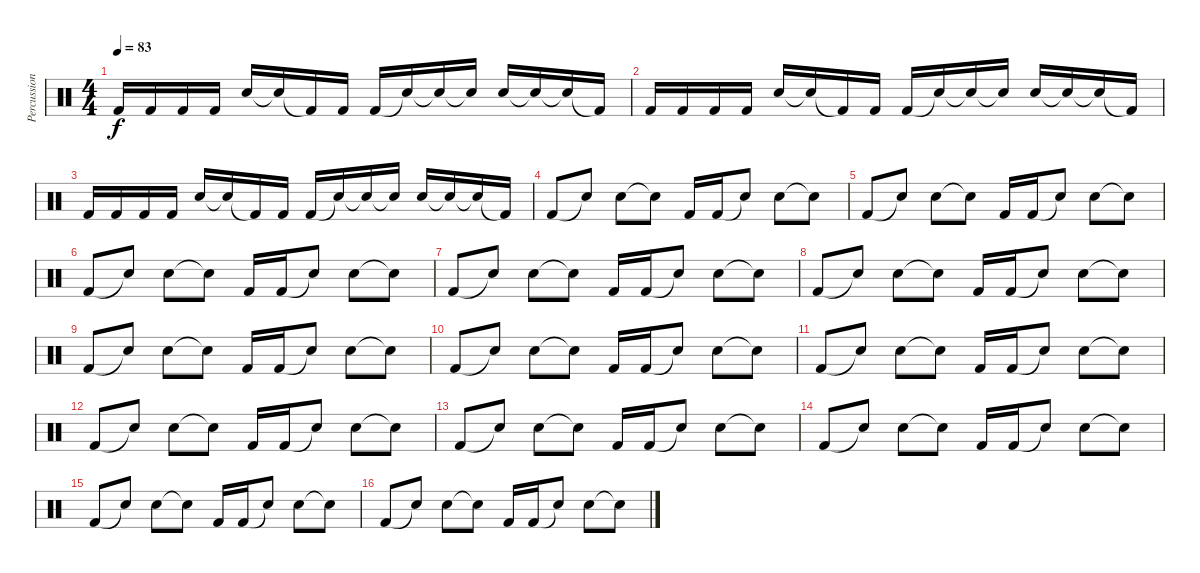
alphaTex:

\track ("Percussion" "Percussion") {instrument percussion}
\staff {score}
\articulation defaults
\ts (4 4)
\tempo 83
\clef neutral
\ks c "Kick (hit) 2".16{dy f} "Kick (hit) 2".16 "Kick (hit) 2".16 "Kick (hit) 2".16 "Snare (hit) 2".16 "Snare (hit)"{t}.16 "Kick (hit) 2"{t}.16 "Kick (hit) 2".16 "Kick (hit) 2".16 "Snare (hit)"{t}.16 "Snare (hit)"{t}.16 "Snare (hit)"{t}.16 "Snare (hit) 2".16 "Snare (hit)"{t}.16 "Snare (hit)"{t}.16 "Kick (hit) 2"{t}.16
|
"Kick (hit) 2".16 "Kick (hit) 2".16 "Kick (hit) 2".16 "Kick (hit) 2".16 "Snare (hit) 2".16 "Snare (hit)"{t}.16 "Kick (hit) 2"{t}.16 "Kick (hit) 2".16 "Kick (hit) 2".16 "Snare (hit)"{t}.16 "Snare (hit)"{t}.16 "Snare (hit)"{t}.16 "Snare (hit) 2".16 "Snare (hit)"{t}.16 "Snare (hit)"{t}.16 "Kick (hit) 2"{t}.16 |
"Kick (hit) 2".16 "Kick (hit) 2".16 "Kick (hit) 2".16 "Kick (hit) 2".16 "Snare (hit) 2".16 "Snare (hit)"{t}.16 "Kick (hit) 2"{t}.16 "Kick (hit) 2".16 "Kick (hit) 2".16 "Snare (hit)"{t}.16 "Snare (hit)"{t}.16 "Snare (hit)"{t}.16 "Snare (hit) 2".16 "Snare (hit)"{t}.16 "Snare (hit)"{t}.16 "Kick (hit) 2"{t}.16 |
"Kick (hit) 2".8 "Snare (hit)"{t}.8 "Snare (hit) 2".8 "Snare (hit)"{t}.8 "Kick (hit) 2".16 "Kick (hit) 2".16 "Snare (hit)"{t}.8 "Snare (hit) 2".8 "Snare (hit)"{t}.8 |
"Kick (hit) 2".8 "Snare (hit)"{t}.8 "Snare (hit) 2".8 "Snare (hit)"{t}.8 "Kick (hit) 2".16 "Kick (hit) 2".16 "Snare (hit)"{t}.8 "Snare (hit) 2".8 "Snare (hit)"{t}.8 |
"Kick (hit) 2".8 "Snare (hit)"{t}.8 "Snare (hit) 2".8 "Snare (hit)"{t}.8 "Kick (hit) 2".16 "Kick (hit) 2".16 "Snare (hit)"{t}.8 "Snare (hit) 2".8 "Snare (hit)"{t}.8 |
"Kick (hit) 2".8 "Snare (hit)"{t}.8 "Snare (hit) 2".8 "Snare (hit)"{t}.8 "Kick (hit) 2".16 "Kick (hit) 2".16 "Snare (hit)"{t}.8 "Snare (hit) 2".8 "Snare (hit)"{t}.8 |
"Kick (hit) 2".8 "Snare (hit)"{t}.8 "Snare (hit) 2".8 "Snare (hit)"{t}.8 "Kick (hit) 2".16 "Kick (hit) 2".16 "Snare (hit)"{t}.8 "Snare (hit) 2".8 "Snare (hit)"{t}.8 |
"Kick (hit) 2".8 "Snare (hit)"{t}.8 "Snare (hit) 2".8 "Snare (hit)"{t}.8 "Kick (hit) 2".16 "Kick (hit) 2".16 "Snare (hit)"{t}.8 "Snare (hit) 2".8 "Snare (hit)"{t}.8 |
"Kick (hit) 2".8 "Snare (hit)"{t}.8 "Snare (hit) 2".8 "Snare (hit)"{t}.8 "Kick (hit) 2".16 "Kick (hit) 2".16 "Snare (hit)"{t}.8 "Snare (hit) 2".8 "Snare (hit)"{t}.8 |
"Kick (hit) 2".8 "Snare (hit)"{t}.8 "Snare (hit) 2".8 "Snare (hit)"{t}.8 "Kick (hit) 2".16 "Kick (hit) 2".16 "Snare (hit)"{t}.8 "Snare (hit) 2".8 "Snare (hit)"{t}.8 |
"Kick (hit) 2".8 "Snare (hit)"{t}.8 "Snare (hit) 2".8 "Snare (hit)"{t}.8 "Kick (hit) 2".16 "Kick (hit) 2".16 "Snare (hit)"{t}.8 "Snare (hit) 2".8 "Snare (hit)"{t}.8 |
"Kick (hit) 2".8 "Snare (hit)"{t}.8 "Snare (hit) 2".8 "Snare (hit)"{t}.8 "Kick (hit) 2".16 "Kick (hit) 2".16 "Snare (hit)"{t}.8 "Snare (hit) 2".8 "Snare (hit)"{t}.8 |
"Kick (hit) 2".8 "Snare (hit)"{t}.8 "Snare (hit) 2".8 "Snare (hit)"{t}.8 "Kick (hit) 2".16 "Kick (hit) 2".16 "Snare (hit)"{t}.8 "Snare (hit) 2".8 "Snare (hit)"{t}.8 |
"Kick (hit) 2".8 "Snare (hit)"{t}.8 "Snare (hit) 2".8 "Snare (hit)"{t}.8 "Kick (hit) 2".16 "Kick (hit) 2".16 "Snare (hit)"{t}.8 "Snare (hit) 2".8 "Snare (hit)"{t}.8 |
"Kick (hit) 2".8 "Snare (hit)"{t}.8 "Snare (hit) 2".8 "Snare (hit)"{t}.8 "Kick (hit) 2".16 "Kick (hit) 2".16 "Snare (hit)"{t}.8 "Snare (hit) 2".8 "Snare (hit)"{t}.8
